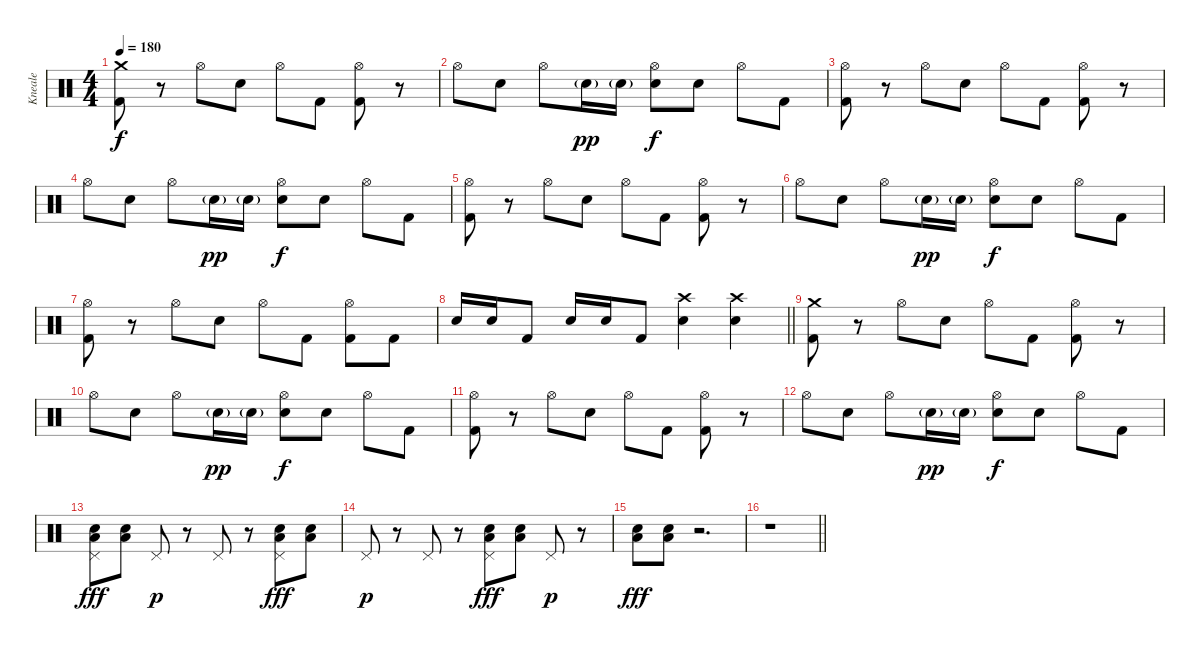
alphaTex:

\track ("Kneale" "Kneale") {instrument percussion}
\staff {score}
\articulation defaults
\ts (4 4)
\tempo 180
\clef neutral
\ks c
("Crash medium (hit)" "Kick (hit) 2").8{dy f} r.8 "Hi-Hat (open)".8 "Electric Snare (hit)".8 "Hi-Hat (open)".8 "Kick (hit) 2".8 ("Hi-Hat (open)" "Kick (hit) 2").8 r.8 |
"Hi-Hat (open)".8 "Electric Snare (hit)".8 "Hi-Hat (open)".8 "Electric Snare (hit)"{g}.16{dy pp} "Electric Snare (hit)"{g}.16 ("Hi-Hat (open)" "Electric Snare (hit)").8{dy f} "Electric Snare (hit)".8 "Hi-Hat (open)".8 "Kick (hit) 2".8 |
("Hi-Hat (open)" "Kick (hit) 2").8 r.8 "Hi-Hat (open)".8 "Electric Snare (hit)".8 "Hi-Hat (open)".8 "Kick (hit) 2".8 ("Hi-Hat (open)" "Kick (hit) 2").8 r.8 |
"Hi-Hat (open)".8 "Electric Snare (hit)".8 "Hi-Hat (open)".8 "Electric Snare (hit)"{g}.16{dy pp} "Electric Snare (hit)"{g}.16 ("Hi-Hat (open)" "Electric Snare (hit)").8{dy f} "Electric Snare (hit)".8 "Hi-Hat (open)".8 "Kick (hit) 2".8 |
("Hi-Hat (open)" "Kick (hit) 2").8 r.8 "Hi-Hat (open)".8 "Electric Snare (hit)".8 "Hi-Hat (open)".8 "Kick (hit) 2".8 ("Hi-Hat (open)" "Kick (hit) 2").8 r.8 |
"Hi-Hat (open)".8 "Electric Snare (hit)".8 "Hi-Hat (open)".8 "Electric Snare (hit)"{g}.16{dy pp} "Electric Snare (hit)"{g}.16 ("Hi-Hat (open)" "Electric Snare (hit)").8{dy f} "Electric Snare (hit)".8 "Hi-Hat (open)".8 "Kick (hit) 2".8 |
("Hi-Hat (open)" "Kick (hit) 2").8 r.8 "Hi-Hat (open)".8 "Electric Snare (hit)".8 "Hi-Hat (open)".8 "Kick (hit) 2".8 ("Hi-Hat (open)" "Kick (hit) 2").8 "Kick (hit) 2".8 |
\barLineRight lightlight "Electric Snare (hit)".16 "Electric Snare (hit)".16 "Kick (hit) 2".8 "Electric Snare (hit)".16 "Electric Snare (hit)".16 "Kick (hit) 2".8
("Crash high (hit)" "Electric Snare (hit)").4 ("Crash high (hit)" "Electric Snare (hit)").4 |
\section ("" "")
("Crash medium (hit)" "Kick (hit) 2").8 r.8 "Hi-Hat (open)".8 "Electric Snare (hit)".8 "Hi-Hat (open)".8 "Kick (hit) 2".8 ("Hi-Hat (open)" "Kick (hit) 2").8 r.8 |
"Hi-Hat (open)".8 "Electric Snare (hit)".8 "Hi-Hat (open)".8 "Electric Snare (hit)"{g}.16{dy pp} "Electric Snare (hit)"{g}.16 ("Hi-Hat (open)" "Electric Snare (hit)").8{dy f} "Electric Snare (hit)".8 "Hi-Hat (open)".8 "Kick (hit) 2".8 |
("Hi-Hat (open)" "Kick (hit) 2").8 r.8 "Hi-Hat (open)".8 "Electric Snare (hit)".8 "Hi-Hat (open)".8 "Kick (hit) 2".8 ("Hi-Hat (open)" "Kick (hit) 2").8 r.8 |
"Hi-Hat (open)".8 "Electric Snare (hit)".8 "Hi-Hat (open)".8 "Electric Snare (hit)"{g}.16{dy pp} "Electric Snare (hit)"{g}.16 ("Hi-Hat (open)" "Electric Snare (hit)").8{dy f} "Electric Snare (hit)".8 "Hi-Hat (open)".8 "Kick (hit) 2".8 |
("Pedal Hi-Hat (hit)" "Low Floor Tom (hit)" "Electric Snare (hit)").8{dy fff} ("Low Floor Tom (hit)" "Electric Snare (hit)").8 "Pedal Hi-Hat (hit)".8{dy p} r.8 "Pedal Hi-Hat (hit)".8 r.8 ("Pedal Hi-Hat (hit)" "Low Floor Tom (hit)" "Electric Snare (hit)").8{dy fff} ("Low Floor Tom (hit)" "Electric Snare (hit)").8 |
"Pedal Hi-Hat (hit)".8{dy p} r.8 "Pedal Hi-Hat (hit)".8 r.8 ("Pedal Hi-Hat (hit)" "Low Floor Tom (hit)" "Electric Snare (hit)").8{dy fff} ("Low Floor Tom (hit)" "Electric Snare (hit)").8 "Pedal Hi-Hat (hit)".8{dy p} r.8 |
("Low Floor Tom (hit)" "Electric Snare (hit)").8{dy fff} ("Low Floor Tom (hit)" "Electric Snare (hit)").8 r.2{d} |
\barLineRight lightlight
r.1
